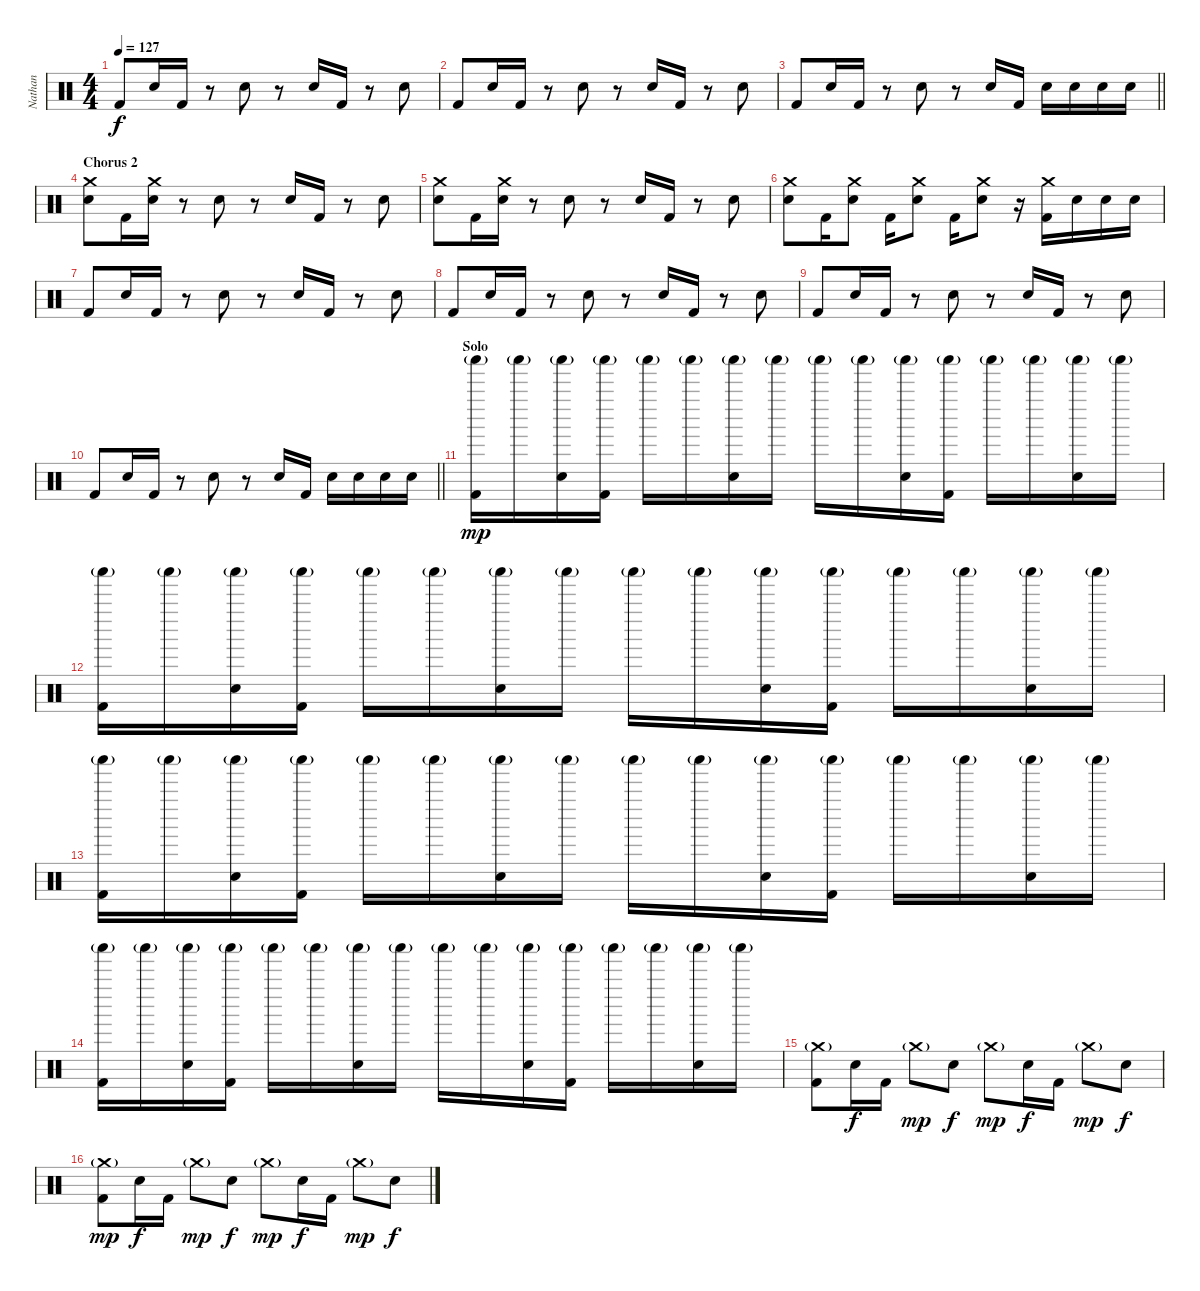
\track ("Nathan" "Nathan") {instrument percussion}
\staff {score}
\articulation defaults
\ts (4 4)
\tempo 127
\clef neutral
\ks c "Kick (hit) 2".8{dy f} "Electric Snare (hit)".16 "Kick (hit) 2".16
r.8 "Electric Snare (hit)".8 r.8 "Electric Snare (hit)".16 "Kick (hit) 2".16 r.8 "Electric Snare (hit)".8 |
"Kick (hit) 2".8 "Electric Snare (hit)".16 "Kick (hit) 2".16 r.8 "Electric Snare (hit)".8 r.8 "Electric Snare (hit)".16 "Kick (hit) 2".16 r.8 "Electric Snare (hit)".8 |
\barLineRight lightlight "Kick (hit) 2".8 "Electric Snare (hit)".16 "Kick (hit) 2".16
r.8 "Electric Snare (hit)".8 r.8 "Electric Snare (hit)".16 "Kick (hit) 2".16 "Electric Snare (hit)".16 "Electric Snare (hit)".16 "Electric Snare (hit)".16 "Electric Snare (hit)".16 |
\section ("" "Chorus 2")
("Crash medium (hit)" "Electric Snare (hit)").8 "Kick (hit) 2".16 ("Crash medium (hit)" "Electric Snare (hit)").16 r.8 "Electric Snare (hit)".8 r.8 "Electric Snare (hit)".16 "Kick (hit) 2".16 r.8 "Electric Snare (hit)".8 |
("Crash medium (hit)" "Electric Snare (hit)").8 "Kick (hit) 2".16 ("Crash medium (hit)" "Electric Snare (hit)").16 r.8 "Electric Snare (hit)".8 r.8 "Electric Snare (hit)".16 "Kick (hit) 2".16 r.8 "Electric Snare (hit)".8 |
("Crash medium (hit)" "Electric Snare (hit)").8 "Kick (hit) 2".16 ("Crash medium (hit)" "Electric Snare (hit)").8 "Kick (hit) 2".16 ("Crash medium (hit)" "Electric Snare (hit)").8 "Kick (hit) 2".16 ("Crash medium (hit)" "Electric Snare (hit)").8 r.16 ("Crash medium (hit)" "Kick (hit) 2").16 "Electric Snare (hit)".16 "Electric Snare (hit)".16 "Electric Snare (hit)".16 |
"Kick (hit) 2".8 "Electric Snare (hit)".16 "Kick (hit) 2".16 r.8 "Electric Snare (hit)".8 r.8 "Electric Snare (hit)".16 "Kick (hit) 2".16 r.8 "Electric Snare (hit)".8 |
"Kick (hit) 2".8 "Electric Snare (hit)".16 "Kick (hit) 2".16 r.8 "Electric Snare (hit)".8 r.8 "Electric Snare (hit)".16 "Kick (hit) 2".16 r.8 "Electric Snare (hit)".8 |
"Kick (hit) 2".8 "Electric Snare (hit)".16 "Kick (hit) 2".16 r.8 "Electric Snare (hit)".8 r.8 "Electric Snare (hit)".16 "Kick (hit) 2".16 r.8 "Electric Snare (hit)".8 |
\barLineRight lightlight "Kick (hit) 2".8 "Electric Snare (hit)".16 "Kick (hit) 2".16
r.8 "Electric Snare (hit)".8 r.8 "Electric Snare (hit)".16 "Kick (hit) 2".16 "Electric Snare (hit)".16 "Electric Snare (hit)".16 "Electric Snare (hit)".16 "Electric Snare (hit)".16 |
\section ("" "Solo")
("Shaker (hit)"{g} "Kick (hit) 2").16{dy mp} "Shaker (hit)"{g}.16 ("Shaker (hit)"{g} "Electric Snare (hit)").16 ("Shaker (hit)"{g} "Kick (hit) 2").16 "Shaker (hit)"{g}.16 "Shaker (hit)"{g}.16 ("Shaker (hit)"{g} "Electric Snare (hit)").16 "Shaker (hit)"{g}.16 "Shaker (hit)"{g}.16 "Shaker (hit)"{g}.16 ("Shaker (hit)"{g} "Electric Snare (hit)").16 ("Shaker (hit)"{g} "Kick (hit) 2").16 "Shaker (hit)"{g}.16 "Shaker (hit)"{g}.16 ("Shaker (hit)"{g} "Electric Snare (hit)").16 "Shaker (hit)"{g}.16 |
("Shaker (hit)"{g} "Kick (hit) 2").16 "Shaker (hit)"{g}.16 ("Shaker (hit)"{g} "Electric Snare (hit)").16 ("Shaker (hit)"{g} "Kick (hit) 2").16 "Shaker (hit)"{g}.16 "Shaker (hit)"{g}.16 ("Shaker (hit)"{g} "Electric Snare (hit)").16 "Shaker (hit)"{g}.16 "Shaker (hit)"{g}.16 "Shaker (hit)"{g}.16 ("Shaker (hit)"{g} "Electric Snare (hit)").16 ("Shaker (hit)"{g} "Kick (hit) 2").16 "Shaker (hit)"{g}.16 "Shaker (hit)"{g}.16 ("Shaker (hit)"{g} "Electric Snare (hit)").16 "Shaker (hit)"{g}.16 |
("Shaker (hit)"{g} "Kick (hit) 2").16 "Shaker (hit)"{g}.16 ("Shaker (hit)"{g} "Electric Snare (hit)").16 ("Shaker (hit)"{g} "Kick (hit) 2").16 "Shaker (hit)"{g}.16 "Shaker (hit)"{g}.16 ("Shaker (hit)"{g} "Electric Snare (hit)").16 "Shaker (hit)"{g}.16 "Shaker (hit)"{g}.16 "Shaker (hit)"{g}.16 ("Shaker (hit)"{g} "Electric Snare (hit)").16 ("Shaker (hit)"{g} "Kick (hit) 2").16 "Shaker (hit)"{g}.16 "Shaker (hit)"{g}.16 ("Shaker (hit)"{g} "Electric Snare (hit)").16 "Shaker (hit)"{g}.16 |
("Shaker (hit)"{g} "Kick (hit) 2").16 "Shaker (hit)"{g}.16 ("Shaker (hit)"{g} "Electric Snare (hit)").16 ("Shaker (hit)"{g} "Kick (hit) 2").16 "Shaker (hit)"{g}.16 "Shaker (hit)"{g}.16 ("Shaker (hit)"{g} "Electric Snare (hit)").16 "Shaker (hit)"{g}.16 "Shaker (hit)"{g}.16 "Shaker (hit)"{g}.16 ("Shaker (hit)"{g} "Electric Snare (hit)").16 ("Shaker (hit)"{g} "Kick (hit) 2").16 "Shaker (hit)"{g}.16 "Shaker (hit)"{g}.16 ("Shaker (hit)"{g} "Electric Snare (hit)").16 "Shaker (hit)"{g}.16 |
("Crash medium (hit)"{g} "Kick (hit) 2").8 "Electric Snare (hit)".16{dy f} "Kick (hit) 2".16 "Crash medium (hit)"{g}.8{dy mp} "Electric Snare (hit)".8{dy f} "Crash medium (hit)"{g}.8{dy mp} "Electric Snare (hit)".16{dy f} "Kick (hit) 2".16 "Crash medium (hit)"{g}.8{dy mp} "Electric Snare (hit)".8{dy f} |
("Crash medium (hit)"{g} "Kick (hit) 2").8{dy mp} "Electric Snare (hit)".16{dy f} "Kick (hit) 2".16 "Crash medium (hit)"{g}.8{dy mp} "Electric Snare (hit)".8{dy f} "Crash medium (hit)"{g}.8{dy mp} "Electric Snare (hit)".16{dy f} "Kick (hit) 2".16 "Crash medium (hit)"{g}.8{dy mp} "Electric Snare (hit)".8{dy f}
